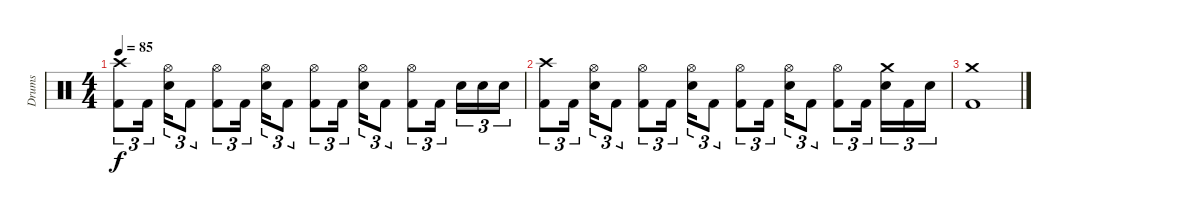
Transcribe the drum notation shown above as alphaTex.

\track ("Drums" "Drums") {instrument percussion}
\staff {score}
\articulation defaults
\ts (4 4)
\tempo 85
\clef neutral
\ks c
("Crash high (hit)" "Kick (hit) 2").8{tu (3 2) dy f} "Kick (hit) 2".16{tu (3 2)} ("Hi-Hat (open)" "Electric Snare (hit)").16{tu (3 2)} "Kick (hit) 2".8{tu (3 2)} ("Hi-Hat (open)" "Kick (hit) 2").8{tu (3 2)} "Kick (hit) 2".16{tu (3 2)} ("Hi-Hat (open)" "Electric Snare (hit)").16{tu (3 2)} "Kick (hit) 2".8{tu (3 2)} ("Hi-Hat (open)" "Kick (hit) 2").8{tu (3 2)} "Kick (hit) 2".16{tu (3 2)} ("Hi-Hat (open)" "Electric Snare (hit)").16{tu (3 2)} "Kick (hit) 2".8{tu (3 2)} ("Hi-Hat (open)" "Kick (hit) 2").8{tu (3 2)} "Kick (hit) 2".16{tu (3 2)} "Electric Snare (hit)".16{tu (3 2)} "Electric Snare (hit)".16{tu (3 2)} "Electric Snare (hit)".16{tu (3 2)} |
("Crash high (hit)" "Kick (hit) 2").8{tu (3 2)} "Kick (hit) 2".16{tu (3 2)} ("Hi-Hat (open)" "Electric Snare (hit)").16{tu (3 2)} "Kick (hit) 2".8{tu (3 2)} ("Hi-Hat (open)" "Kick (hit) 2").8{tu (3 2)} "Kick (hit) 2".16{tu (3 2)} ("Hi-Hat (open)" "Electric Snare (hit)").16{tu (3 2)} "Kick (hit) 2".8{tu (3 2)} ("Hi-Hat (open)" "Kick (hit) 2").8{tu (3 2)} "Kick (hit) 2".16{tu (3 2)} ("Hi-Hat (open)" "Electric Snare (hit)").16{tu (3 2)} "Kick (hit) 2".8{tu (3 2)} ("Hi-Hat (open)" "Kick (hit) 2").8{tu (3 2)} "Kick (hit) 2".16{tu (3 2)} ("Crash medium (hit)" "Electric Snare (hit)").16{tu (3 2)} "Kick (hit) 2".16{tu (3 2)} "Electric Snare (hit)".16{tu (3 2)} |
("Crash medium (hit)" "Kick (hit) 2").1
